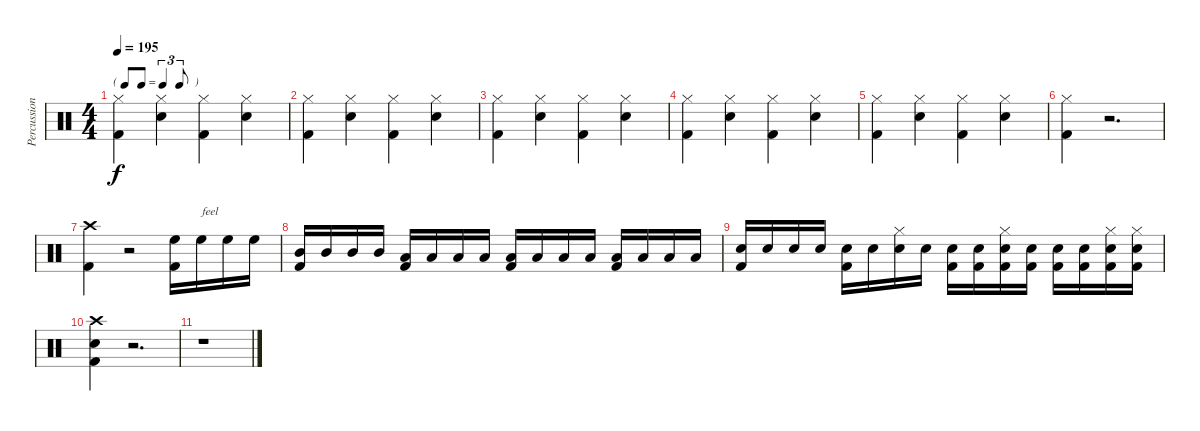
\track ("Percussions" "Percussion") {instrument percussion}
\staff {score}
\articulation defaults
\ts (4 4)
\tf triplet8th
\tempo 195
\clef neutral
\ks c
("Hi-Hat (closed)" "Kick (hit) 2").4{dy f} ("Snare (hit) 2" "Hi-Hat (closed)").4 ("Hi-Hat (closed)" "Kick (hit) 2").4 ("Snare (hit) 2" "Hi-Hat (closed)").4 |
("Hi-Hat (closed)" "Kick (hit) 2").4 ("Snare (hit) 2" "Hi-Hat (closed)").4 ("Hi-Hat (closed)" "Kick (hit) 2").4 ("Snare (hit) 2" "Hi-Hat (closed)").4 |
("Hi-Hat (closed)" "Kick (hit) 2").4 ("Snare (hit) 2" "Hi-Hat (closed)").4 ("Hi-Hat (closed)" "Kick (hit) 2").4 ("Snare (hit) 2" "Hi-Hat (closed)").4 |
("Hi-Hat (closed)" "Kick (hit) 2").4 ("Snare (hit) 2" "Hi-Hat (closed)").4 ("Hi-Hat (closed)" "Kick (hit) 2").4 ("Snare (hit) 2" "Hi-Hat (closed)").4 |
("Hi-Hat (closed)" "Kick (hit) 2").4 ("Snare (hit) 2" "Hi-Hat (closed)").4 ("Hi-Hat (closed)" "Kick (hit) 2").4 ("Snare (hit) 2" "Hi-Hat (closed)").4 |
("Hi-Hat (closed)" "Kick (hit) 2").4 r.2{d} |
("Crash high (hit)" "Kick (hit) 2").4 r.2 ("High Floor Tom (hit)" "Kick (hit) 2").16 "High Floor Tom (hit)".16{txt "feel"} "High Floor Tom (hit)".16 "High Floor Tom (hit)".16 |
("Mid Tom (hit)" "Kick (hit) 2").16 "Mid Tom (hit)".16 "Mid Tom (hit)".16 "Mid Tom (hit)".16 ("Low Tom (hit)" "Kick (hit) 2").16 "Low Tom (hit)".16 "Low Tom (hit)".16 "Low Tom (hit)".16 ("Low Floor Tom (hit)" "Kick (hit) 2").16 "Low Floor Tom (hit)".16 "Low Floor Tom (hit)".16 "Low Floor Tom (hit)".16 ("Low Floor Tom (hit)" "Kick (hit) 2").16 "Low Floor Tom (hit)".16 "Low Floor Tom (hit)".16 "Low Floor Tom (hit)".16 |
("Snare (hit) 2" "Kick (hit) 2").16 "Snare (hit) 2".16 "Snare (hit) 2".16 "Snare (hit) 2".16 ("Snare (hit) 2" "Kick (hit) 2").16 "Snare (hit) 2".16 ("Snare (hit) 2" "Hi-Hat (closed)").16 "Snare (hit) 2".16 ("Snare (hit) 2" "Kick (hit) 2").16 ("Snare (hit) 2" "Kick (hit) 2").16 ("Snare (hit) 2" "Hi-Hat (closed)" "Kick (hit) 2").16 ("Snare (hit) 2" "Kick (hit) 2").16 ("Snare (hit) 2" "Kick (hit) 2").16 ("Snare (hit) 2" "Kick (hit) 2").16 ("Snare (hit) 2" "Hi-Hat (closed)" "Kick (hit) 2").16 ("Snare (hit) 2" "Hi-Hat (closed)" "Kick (hit) 2").16 |
("Snare (hit) 2" "Crash high (hit)" "Kick (hit) 2").4 r.2{d} |
r.1
